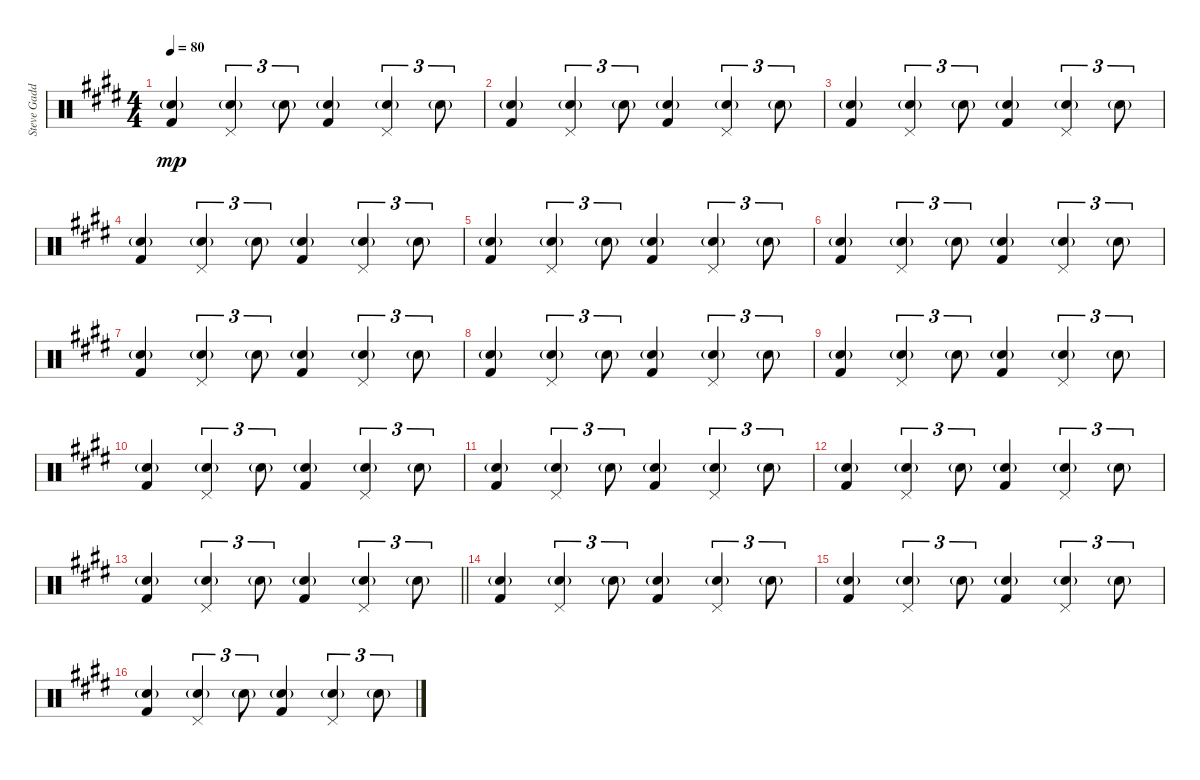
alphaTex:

\track ("Steve Gadd Drums" "Steve Gadd") {instrument percussion}
\staff {score}
\articulation defaults
\ts (4 4)
\tempo 80
\clef neutral
\ks e
("Snare (hit) 2"{g} "Kick (hit) 2").4{dy mp} ("Snare (hit) 2"{g} "Pedal Hi-Hat (hit)").4{tu (3 2)} "Snare (hit) 2"{g}.8{tu (3 2)} ("Snare (hit) 2"{g} "Kick (hit) 2").4 ("Snare (hit) 2"{g} "Pedal Hi-Hat (hit)").4{tu (3 2)} "Snare (hit) 2"{g}.8{tu (3 2)} |
("Snare (hit) 2"{g} "Kick (hit) 2").4 ("Snare (hit) 2"{g} "Pedal Hi-Hat (hit)").4{tu (3 2)} "Snare (hit) 2"{g}.8{tu (3 2)} ("Snare (hit) 2"{g} "Kick (hit) 2").4 ("Snare (hit) 2"{g} "Pedal Hi-Hat (hit)").4{tu (3 2)} "Snare (hit) 2"{g}.8{tu (3 2)} |
("Snare (hit) 2"{g} "Kick (hit) 2").4 ("Snare (hit) 2"{g} "Pedal Hi-Hat (hit)").4{tu (3 2)} "Snare (hit) 2"{g}.8{tu (3 2)} ("Snare (hit) 2"{g} "Kick (hit) 2").4 ("Snare (hit) 2"{g} "Pedal Hi-Hat (hit)").4{tu (3 2)} "Snare (hit) 2"{g}.8{tu (3 2)} |
("Snare (hit) 2"{g} "Kick (hit) 2").4 ("Snare (hit) 2"{g} "Pedal Hi-Hat (hit)").4{tu (3 2)} "Snare (hit) 2"{g}.8{tu (3 2)} ("Snare (hit) 2"{g} "Kick (hit) 2").4 ("Snare (hit) 2"{g} "Pedal Hi-Hat (hit)").4{tu (3 2)} "Snare (hit) 2"{g}.8{tu (3 2)} |
("Snare (hit) 2"{g} "Kick (hit) 2").4 ("Snare (hit) 2"{g} "Pedal Hi-Hat (hit)").4{tu (3 2)} "Snare (hit) 2"{g}.8{tu (3 2)} ("Snare (hit) 2"{g} "Kick (hit) 2").4 ("Snare (hit) 2"{g} "Pedal Hi-Hat (hit)").4{tu (3 2)} "Snare (hit) 2"{g}.8{tu (3 2)} |
("Snare (hit) 2"{g} "Kick (hit) 2").4 ("Snare (hit) 2"{g} "Pedal Hi-Hat (hit)").4{tu (3 2)} "Snare (hit) 2"{g}.8{tu (3 2)} ("Snare (hit) 2"{g} "Kick (hit) 2").4 ("Snare (hit) 2"{g} "Pedal Hi-Hat (hit)").4{tu (3 2)} "Snare (hit) 2"{g}.8{tu (3 2)} |
("Snare (hit) 2"{g} "Kick (hit) 2").4 ("Snare (hit) 2"{g} "Pedal Hi-Hat (hit)").4{tu (3 2)} "Snare (hit) 2"{g}.8{tu (3 2)} ("Snare (hit) 2"{g} "Kick (hit) 2").4 ("Snare (hit) 2"{g} "Pedal Hi-Hat (hit)").4{tu (3 2)} "Snare (hit) 2"{g}.8{tu (3 2)} |
("Snare (hit) 2"{g} "Kick (hit) 2").4 ("Snare (hit) 2"{g} "Pedal Hi-Hat (hit)").4{tu (3 2)} "Snare (hit) 2"{g}.8{tu (3 2)} ("Snare (hit) 2"{g} "Kick (hit) 2").4 ("Snare (hit) 2"{g} "Pedal Hi-Hat (hit)").4{tu (3 2)} "Snare (hit) 2"{g}.8{tu (3 2)} |
("Snare (hit) 2"{g} "Kick (hit) 2").4 ("Snare (hit) 2"{g} "Pedal Hi-Hat (hit)").4{tu (3 2)} "Snare (hit) 2"{g}.8{tu (3 2)} ("Snare (hit) 2"{g} "Kick (hit) 2").4 ("Snare (hit) 2"{g} "Pedal Hi-Hat (hit)").4{tu (3 2)} "Snare (hit) 2"{g}.8{tu (3 2)} |
("Snare (hit) 2"{g} "Kick (hit) 2").4 ("Snare (hit) 2"{g} "Pedal Hi-Hat (hit)").4{tu (3 2)} "Snare (hit) 2"{g}.8{tu (3 2)} ("Snare (hit) 2"{g} "Kick (hit) 2").4 ("Snare (hit) 2"{g} "Pedal Hi-Hat (hit)").4{tu (3 2)} "Snare (hit) 2"{g}.8{tu (3 2)} |
("Snare (hit) 2"{g} "Kick (hit) 2").4 ("Snare (hit) 2"{g} "Pedal Hi-Hat (hit)").4{tu (3 2)} "Snare (hit) 2"{g}.8{tu (3 2)} ("Snare (hit) 2"{g} "Kick (hit) 2").4 ("Snare (hit) 2"{g} "Pedal Hi-Hat (hit)").4{tu (3 2)} "Snare (hit) 2"{g}.8{tu (3 2)} |
("Snare (hit) 2"{g} "Kick (hit) 2").4 ("Snare (hit) 2"{g} "Pedal Hi-Hat (hit)").4{tu (3 2)} "Snare (hit) 2"{g}.8{tu (3 2)} ("Snare (hit) 2"{g} "Kick (hit) 2").4 ("Snare (hit) 2"{g} "Pedal Hi-Hat (hit)").4{tu (3 2)} "Snare (hit) 2"{g}.8{tu (3 2)} |
\barLineRight lightlight
("Snare (hit) 2"{g} "Kick (hit) 2").4 ("Snare (hit) 2"{g} "Pedal Hi-Hat (hit)").4{tu (3 2)} "Snare (hit) 2"{g}.8{tu (3 2)} ("Snare (hit) 2"{g} "Kick (hit) 2").4 ("Snare (hit) 2"{g} "Pedal Hi-Hat (hit)").4{tu (3 2)} "Snare (hit) 2"{g}.8{tu (3 2)} |
("Snare (hit) 2"{g} "Kick (hit) 2").4 ("Snare (hit) 2"{g} "Pedal Hi-Hat (hit)").4{tu (3 2)} "Snare (hit) 2"{g}.8{tu (3 2)} ("Snare (hit) 2"{g} "Kick (hit) 2").4 ("Snare (hit) 2"{g} "Pedal Hi-Hat (hit)").4{tu (3 2)} "Snare (hit) 2"{g}.8{tu (3 2)} |
("Snare (hit) 2"{g} "Kick (hit) 2").4 ("Snare (hit) 2"{g} "Pedal Hi-Hat (hit)").4{tu (3 2)} "Snare (hit) 2"{g}.8{tu (3 2)} ("Snare (hit) 2"{g} "Kick (hit) 2").4 ("Snare (hit) 2"{g} "Pedal Hi-Hat (hit)").4{tu (3 2)} "Snare (hit) 2"{g}.8{tu (3 2)} |
("Snare (hit) 2"{g} "Kick (hit) 2").4 ("Snare (hit) 2"{g} "Pedal Hi-Hat (hit)").4{tu (3 2)} "Snare (hit) 2"{g}.8{tu (3 2)} ("Snare (hit) 2"{g} "Kick (hit) 2").4 ("Snare (hit) 2"{g} "Pedal Hi-Hat (hit)").4{tu (3 2)} "Snare (hit) 2"{g}.8{tu (3 2)}
